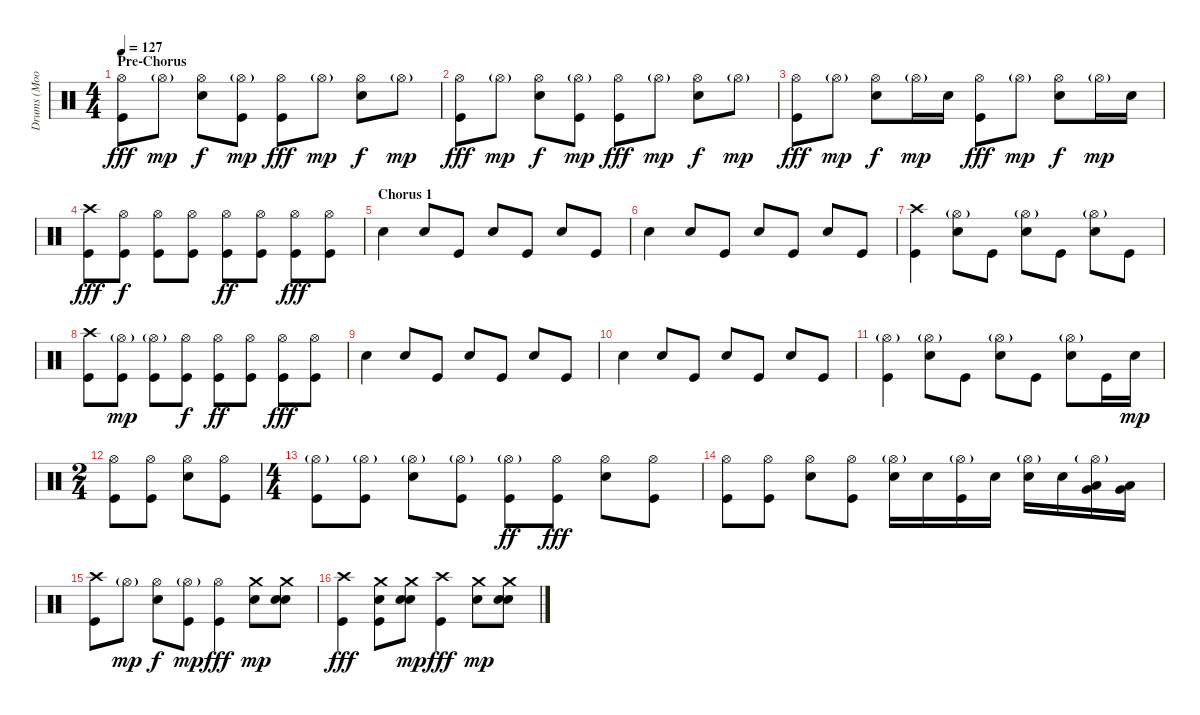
\track ("Drums (Moon)" "Drums (Moo") {instrument percussion}
\staff {score}
\articulation defaults
\ts (4 4)
\section ("" "Pre-Chorus")
\tempo 127
\clef neutral
\ks c
("Hi-Hat (open)" "Kick (hit)").8{dy fff} "Hi-Hat (open)"{g}.8{dy mp} ("Hi-Hat (open)" "Electric Snare (hit)").8{dy f} ("Hi-Hat (open)"{g} "Kick (hit)").8{dy mp} ("Hi-Hat (open)" "Kick (hit)").8{dy fff} "Hi-Hat (open)"{g}.8{dy mp} ("Hi-Hat (open)" "Electric Snare (hit)").8{dy f} "Hi-Hat (open)"{g}.8{dy mp} |
("Hi-Hat (open)" "Kick (hit)").8{dy fff} "Hi-Hat (open)"{g}.8{dy mp} ("Hi-Hat (open)" "Electric Snare (hit)").8{dy f} ("Hi-Hat (open)"{g} "Kick (hit)").8{dy mp} ("Hi-Hat (open)" "Kick (hit)").8{dy fff} "Hi-Hat (open)"{g}.8{dy mp} ("Hi-Hat (open)" "Electric Snare (hit)").8{dy f} "Hi-Hat (open)"{g}.8{dy mp} |
("Hi-Hat (open)" "Kick (hit)").8{dy fff} "Hi-Hat (open)"{g}.8{dy mp} ("Hi-Hat (open)" "Electric Snare (hit)").8{dy f} "Hi-Hat (open)"{g}.16{dy mp} "Electric Snare (hit)".16 ("Hi-Hat (open)" "Kick (hit)").8{dy fff} "Hi-Hat (open)"{g}.8{dy mp} ("Hi-Hat (open)" "Electric Snare (hit)").8{dy f} "Hi-Hat (open)"{g}.16{dy mp} "Electric Snare (hit)".16 |
("Crash high (hit)" "Kick (hit)").8{dy fff} ("Hi-Hat (open)" "Kick (hit)").8{dy f} ("Hi-Hat (open)" "Kick (hit)").8 ("Hi-Hat (open)" "Kick (hit)").8 ("Hi-Hat (open)" "Kick (hit)").8{dy ff} ("Hi-Hat (open)" "Kick (hit)").8 ("Hi-Hat (open)" "Kick (hit)").8{dy fff} ("Hi-Hat (open)" "Kick (hit)").8 |
\section ("" "Chorus 1")
"Electric Snare (hit)".4 "Electric Snare (hit)".8 "Kick (hit)".8 "Electric Snare (hit)".8 "Kick (hit)".8 "Electric Snare (hit)".8 "Kick (hit)".8 |
"Electric Snare (hit)".4 "Electric Snare (hit)".8 "Kick (hit)".8 "Electric Snare (hit)".8 "Kick (hit)".8 "Electric Snare (hit)".8 "Kick (hit)".8 |
("Crash high (hit)" "Kick (hit)").4 ("Hi-Hat (open)"{g} "Electric Snare (hit)").8 "Kick (hit)".8 ("Hi-Hat (open)"{g} "Electric Snare (hit)").8 "Kick (hit)".8 ("Hi-Hat (open)"{g} "Electric Snare (hit)").8 "Kick (hit)".8 |
("Crash high (hit)" "Kick (hit)").8 ("Hi-Hat (open)"{g} "Kick (hit)").8{dy mp} ("Hi-Hat (open)"{g} "Kick (hit)").8 ("Hi-Hat (open)" "Kick (hit)").8{dy f} ("Hi-Hat (open)" "Kick (hit)").8{dy ff} ("Hi-Hat (open)" "Kick (hit)").8 ("Hi-Hat (open)" "Kick (hit)").8{dy fff} ("Hi-Hat (open)" "Kick (hit)").8 |
"Electric Snare (hit)".4 "Electric Snare (hit)".8 "Kick (hit)".8 "Electric Snare (hit)".8 "Kick (hit)".8 "Electric Snare (hit)".8 "Kick (hit)".8 |
"Electric Snare (hit)".4 "Electric Snare (hit)".8 "Kick (hit)".8 "Electric Snare (hit)".8 "Kick (hit)".8 "Electric Snare (hit)".8 "Kick (hit)".8 |
("Hi-Hat (open)"{g} "Kick (hit)").4 ("Hi-Hat (open)"{g} "Electric Snare (hit)").8 "Kick (hit)".8 ("Hi-Hat (open)"{g} "Electric Snare (hit)").8 "Kick (hit)".8 ("Hi-Hat (open)"{g} "Electric Snare (hit)").8 "Kick (hit)".16 "Electric Snare (hit)".16{dy mp} |
\ts (2 4)
("Hi-Hat (open)" "Kick (hit)").8 ("Hi-Hat (open)" "Kick (hit)").8 ("Hi-Hat (open)" "Electric Snare (hit)").8 ("Hi-Hat (open)" "Kick (hit)").8 |
\ts (4 4)
("Hi-Hat (open)"{g} "Kick (hit)").8 ("Hi-Hat (open)"{g} "Kick (hit)").8 ("Hi-Hat (open)"{g} "Electric Snare (hit)").8 ("Hi-Hat (open)"{g} "Kick (hit)").8 ("Hi-Hat (open)"{g} "Kick (hit)").8{dy ff} ("Hi-Hat (open)" "Kick (hit)").8{dy fff} ("Hi-Hat (open)" "Electric Snare (hit)").8 ("Hi-Hat (open)" "Kick (hit)").8 |
("Hi-Hat (open)" "Kick (hit)").8{volume 13} ("Hi-Hat (open)" "Kick (hit)").8 ("Hi-Hat (open)" "Electric Snare (hit)").8 ("Hi-Hat (open)" "Kick (hit)").8 ("Hi-Hat (open)"{g} "Electric Snare (hit)").16 "Electric Snare (hit)".16 ("Hi-Hat (open)"{g} "Kick (hit)").16 "Electric Snare (hit)".16 ("Hi-Hat (open)"{g} "Electric Snare (hit)").16 "Electric Snare (hit)".16 ("Hi-Hat (open)"{g} "Low Tom (hit)" "Very Low Tom (hit)").16 ("Low Tom (hit)" "Very Low Tom (hit)").16 |
("Crash high (hit)" "Kick (hit)").8 "Hi-Hat (open)"{g}.8{dy mp} ("Hi-Hat (open)" "Electric Snare (hit)").8{dy f} ("Hi-Hat (open)"{g} "Kick (hit)").8{dy mp} ("Hi-Hat (open)" "Kick (hit)").4{dy fff} ("Crash medium (hit)" "Electric Snare (hit)").8{dy mp} ("Crash medium (hit)" "Electric Snare (hit)" "Snare (hit) 2").8 |
("Crash high (hit)" "Kick (hit)").4{dy fff} ("Crash medium (hit)" "Electric Snare (hit)" "Kick (hit)").8 ("Crash medium (hit)" "Electric Snare (hit)" "Snare (hit) 2").8{dy mp} ("Crash high (hit)" "Kick (hit)").4{dy fff} ("Crash medium (hit)" "Electric Snare (hit)").8{dy mp} ("Crash medium (hit)" "Electric Snare (hit)" "Snare (hit) 2").8
